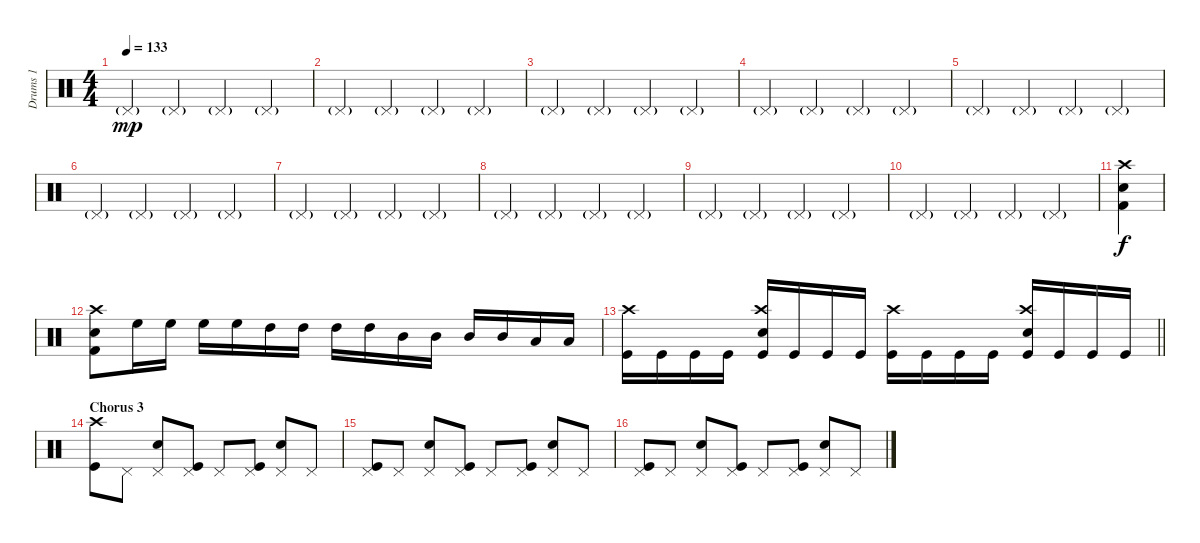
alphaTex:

\track ("Drums 1" "Drums 1") {instrument percussion}
\staff {score}
\articulation defaults
\ts (4 4)
\tempo 133
\clef neutral
\ks c "Pedal Hi-Hat (hit)"{g}.2{dy mp} "Pedal Hi-Hat (hit)"{g}.2 "Pedal Hi-Hat (hit)"{g}.2 "Pedal Hi-Hat (hit)"{g}.2
|
"Pedal Hi-Hat (hit)"{g}.2 "Pedal Hi-Hat (hit)"{g}.2 "Pedal Hi-Hat (hit)"{g}.2 "Pedal Hi-Hat (hit)"{g}.2 |
"Pedal Hi-Hat (hit)"{g}.2 "Pedal Hi-Hat (hit)"{g}.2 "Pedal Hi-Hat (hit)"{g}.2 "Pedal Hi-Hat (hit)"{g}.2 |
"Pedal Hi-Hat (hit)"{g}.2 "Pedal Hi-Hat (hit)"{g}.2 "Pedal Hi-Hat (hit)"{g}.2 "Pedal Hi-Hat (hit)"{g}.2 |
"Pedal Hi-Hat (hit)"{g}.2 "Pedal Hi-Hat (hit)"{g}.2 "Pedal Hi-Hat (hit)"{g}.2 "Pedal Hi-Hat (hit)"{g}.2 |
"Pedal Hi-Hat (hit)"{g}.2 "Pedal Hi-Hat (hit)"{g}.2 "Pedal Hi-Hat (hit)"{g}.2 "Pedal Hi-Hat (hit)"{g}.2 |
"Pedal Hi-Hat (hit)"{g}.2 "Pedal Hi-Hat (hit)"{g}.2 "Pedal Hi-Hat (hit)"{g}.2 "Pedal Hi-Hat (hit)"{g}.2 |
"Pedal Hi-Hat (hit)"{g}.2 "Pedal Hi-Hat (hit)"{g}.2 "Pedal Hi-Hat (hit)"{g}.2 "Pedal Hi-Hat (hit)"{g}.2 |
"Pedal Hi-Hat (hit)"{g}.2 "Pedal Hi-Hat (hit)"{g}.2 "Pedal Hi-Hat (hit)"{g}.2 "Pedal Hi-Hat (hit)"{g}.2 |
"Pedal Hi-Hat (hit)"{g}.2 "Pedal Hi-Hat (hit)"{g}.2 "Pedal Hi-Hat (hit)"{g}.2 "Pedal Hi-Hat (hit)"{g}.2 |
("Electric Snare (hit)" "Kick (hit) 2" "Crash high (hit)").4{dy f} |
("Crash high (hit)" "Kick (hit) 2" "Electric Snare (hit)").8 "High Floor Tom (hit)".16 "High Floor Tom (hit)".16 "High Floor Tom (hit)".16 "High Floor Tom (hit)".16 "High Tom (hit)".16 "High Tom (hit)".16 "High Tom (hit)".16 "High Tom (hit)".16 "Mid Tom (hit)".16 "Mid Tom (hit)".16 "Mid Tom (hit)".16 "Mid Tom (hit)".16 "Low Tom (hit)".16 "Low Tom (hit)".16 |
\barLineRight lightlight
("Kick (hit)" "Crash high (hit)").16 "Kick (hit)".16 "Kick (hit)".16 "Kick (hit)".16 ("Kick (hit)" "Electric Snare (hit)" "Crash high (hit)").16 "Kick (hit)".16 "Kick (hit)".16 "Kick (hit)".16 ("Kick (hit)" "Crash high (hit)").16 "Kick (hit)".16 "Kick (hit)".16 "Kick (hit)".16 ("Kick (hit)" "Electric Snare (hit)" "Crash high (hit)").16 "Kick (hit)".16 "Kick (hit)".16 "Kick (hit)".16 |
\section ("" "Chorus 3")
("Crash high (hit)" "Kick (hit)").8 "Pedal Hi-Hat (hit)".8 ("Pedal Hi-Hat (hit)" "Electric Snare (hit)").8 ("Pedal Hi-Hat (hit)" "Kick (hit)").8 "Pedal Hi-Hat (hit)".8 ("Pedal Hi-Hat (hit)" "Kick (hit)").8 ("Pedal Hi-Hat (hit)" "Electric Snare (hit)").8 "Pedal Hi-Hat (hit)".8 |
("Pedal Hi-Hat (hit)" "Kick (hit)").8 "Pedal Hi-Hat (hit)".8 ("Pedal Hi-Hat (hit)" "Electric Snare (hit)").8 ("Pedal Hi-Hat (hit)" "Kick (hit)").8 "Pedal Hi-Hat (hit)".8 ("Pedal Hi-Hat (hit)" "Kick (hit)").8 ("Pedal Hi-Hat (hit)" "Electric Snare (hit)").8 "Pedal Hi-Hat (hit)".8 |
("Pedal Hi-Hat (hit)" "Kick (hit)").8 "Pedal Hi-Hat (hit)".8 ("Pedal Hi-Hat (hit)" "Electric Snare (hit)").8 ("Pedal Hi-Hat (hit)" "Kick (hit)").8 "Pedal Hi-Hat (hit)".8 ("Pedal Hi-Hat (hit)" "Kick (hit)").8 ("Pedal Hi-Hat (hit)" "Electric Snare (hit)").8 "Pedal Hi-Hat (hit)".8
